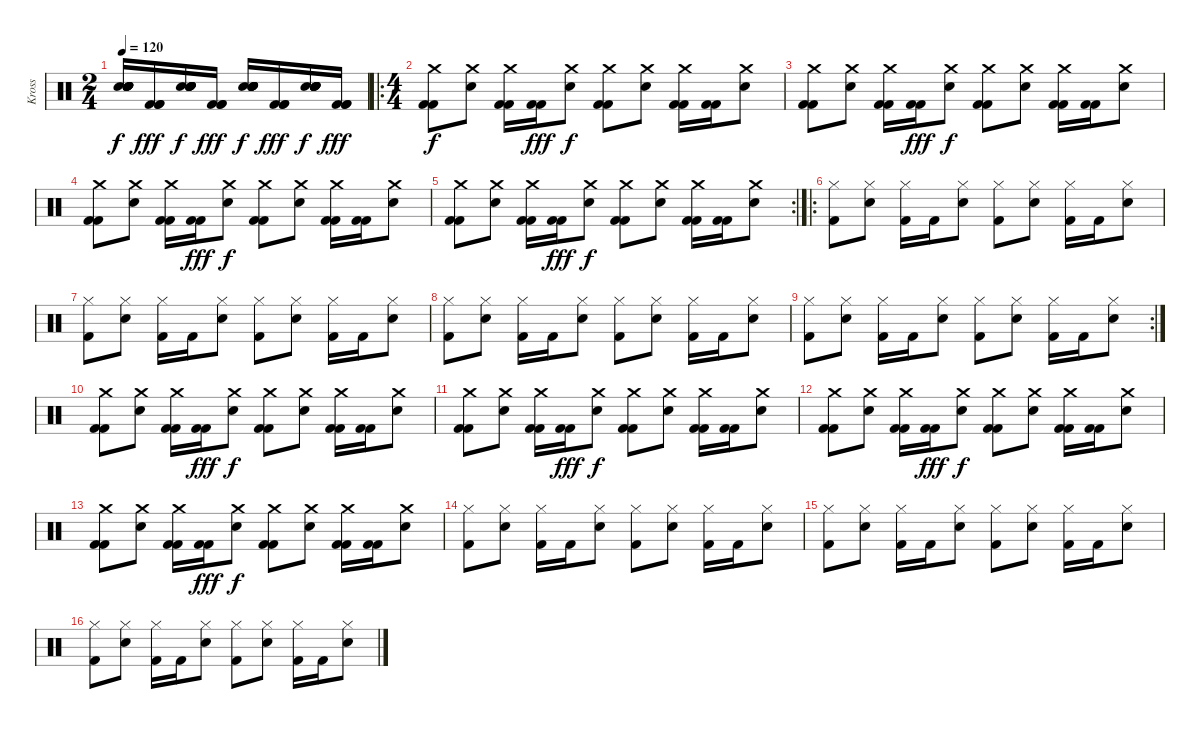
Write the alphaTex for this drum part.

\track ("Kross" "Kross") {instrument percussion}
\staff {score}
\articulation defaults
\ts (2 4)
\tempo 120
\clef neutral
\ks c
("Snare (hit) 2" "Snare (hit) 2" "Snare (hit) 2" "Snare (hit) 2" "Snare (hit) 2" "Snare (hit) 2").16{dy f} ("Kick (hit) 2" "Kick (hit) 2" "Kick (hit) 2").16{dy fff} ("Snare (hit) 2" "Snare (hit) 2" "Snare (hit) 2" "Snare (hit) 2" "Snare (hit) 2" "Snare (hit) 2").16{dy f} ("Kick (hit) 2" "Kick (hit) 2" "Kick (hit) 2").16{dy fff} ("Snare (hit) 2" "Snare (hit) 2" "Snare (hit) 2" "Snare (hit) 2" "Snare (hit) 2" "Snare (hit) 2").16{dy f} ("Kick (hit) 2" "Kick (hit) 2" "Kick (hit) 2").16{dy fff} ("Snare (hit) 2" "Snare (hit) 2" "Snare (hit) 2" "Snare (hit) 2" "Snare (hit) 2" "Snare (hit) 2").16{dy f} ("Kick (hit) 2" "Kick (hit) 2" "Kick (hit) 2").16{dy fff} |
\ro
\ts (4 4)
("Kick (hit) 2" "Kick (hit) 2" "Crash medium (hit)").8{dy f} ("Crash medium (hit)" "Snare (hit) 2").8 ("Kick (hit) 2" "Kick (hit) 2" "Crash medium (hit)").16 ("Kick (hit) 2" "Kick (hit) 2").16{dy fff} ("Crash medium (hit)" "Snare (hit) 2").8{dy f} ("Kick (hit) 2" "Kick (hit) 2" "Crash medium (hit)").8 ("Crash medium (hit)" "Snare (hit) 2").8 ("Kick (hit) 2" "Kick (hit) 2" "Crash medium (hit)").16 ("Kick (hit) 2" "Kick (hit) 2").16 ("Crash medium (hit)" "Snare (hit) 2").8 |
("Kick (hit) 2" "Kick (hit) 2" "Crash medium (hit)").8 ("Crash medium (hit)" "Snare (hit) 2").8 ("Kick (hit) 2" "Kick (hit) 2" "Crash medium (hit)").16 ("Kick (hit) 2" "Kick (hit) 2").16{dy fff} ("Crash medium (hit)" "Snare (hit) 2").8{dy f} ("Kick (hit) 2" "Kick (hit) 2" "Crash medium (hit)").8 ("Crash medium (hit)" "Snare (hit) 2").8 ("Kick (hit) 2" "Kick (hit) 2" "Crash medium (hit)").16 ("Kick (hit) 2" "Kick (hit) 2").16 ("Crash medium (hit)" "Snare (hit) 2").8 |
("Kick (hit) 2" "Kick (hit) 2" "Crash medium (hit)").8 ("Crash medium (hit)" "Snare (hit) 2").8 ("Kick (hit) 2" "Kick (hit) 2" "Crash medium (hit)").16 ("Kick (hit) 2" "Kick (hit) 2").16{dy fff} ("Crash medium (hit)" "Snare (hit) 2").8{dy f} ("Kick (hit) 2" "Kick (hit) 2" "Crash medium (hit)").8 ("Crash medium (hit)" "Snare (hit) 2").8 ("Kick (hit) 2" "Kick (hit) 2" "Crash medium (hit)").16 ("Kick (hit) 2" "Kick (hit) 2").16 ("Crash medium (hit)" "Snare (hit) 2").8 |
\rc 2
("Kick (hit) 2" "Kick (hit) 2" "Crash medium (hit)").8 ("Crash medium (hit)" "Snare (hit) 2").8 ("Kick (hit) 2" "Kick (hit) 2" "Crash medium (hit)").16 ("Kick (hit) 2" "Kick (hit) 2").16{dy fff} ("Crash medium (hit)" "Snare (hit) 2").8{dy f} ("Kick (hit) 2" "Kick (hit) 2" "Crash medium (hit)").8 ("Crash medium (hit)" "Snare (hit) 2").8 ("Kick (hit) 2" "Kick (hit) 2" "Crash medium (hit)").16 ("Kick (hit) 2" "Kick (hit) 2").16 ("Crash medium (hit)" "Snare (hit) 2").8 |
\ro
("Kick (hit) 2" "Hi-Hat (closed)").8 ("Hi-Hat (closed)" "Snare (hit) 2").8 ("Kick (hit) 2" "Hi-Hat (closed)").16 "Kick (hit) 2".16 ("Hi-Hat (closed)" "Snare (hit) 2").8 ("Kick (hit) 2" "Hi-Hat (closed)").8 ("Hi-Hat (closed)" "Snare (hit) 2").8 ("Kick (hit) 2" "Hi-Hat (closed)").16 "Kick (hit) 2".16 ("Hi-Hat (closed)" "Snare (hit) 2").8 |
("Kick (hit) 2" "Hi-Hat (closed)").8 ("Hi-Hat (closed)" "Snare (hit) 2").8 ("Kick (hit) 2" "Hi-Hat (closed)").16 "Kick (hit) 2".16 ("Hi-Hat (closed)" "Snare (hit) 2").8 ("Kick (hit) 2" "Hi-Hat (closed)").8 ("Hi-Hat (closed)" "Snare (hit) 2").8 ("Kick (hit) 2" "Hi-Hat (closed)").16 "Kick (hit) 2".16 ("Hi-Hat (closed)" "Snare (hit) 2").8 |
("Kick (hit) 2" "Hi-Hat (closed)").8 ("Hi-Hat (closed)" "Snare (hit) 2").8 ("Kick (hit) 2" "Hi-Hat (closed)").16 "Kick (hit) 2".16 ("Hi-Hat (closed)" "Snare (hit) 2").8 ("Kick (hit) 2" "Hi-Hat (closed)").8 ("Hi-Hat (closed)" "Snare (hit) 2").8 ("Kick (hit) 2" "Hi-Hat (closed)").16 "Kick (hit) 2".16 ("Hi-Hat (closed)" "Snare (hit) 2").8 |
\rc 2
("Kick (hit) 2" "Hi-Hat (closed)").8 ("Hi-Hat (closed)" "Snare (hit) 2").8 ("Kick (hit) 2" "Hi-Hat (closed)").16 "Kick (hit) 2".16 ("Hi-Hat (closed)" "Snare (hit) 2").8 ("Kick (hit) 2" "Hi-Hat (closed)").8 ("Hi-Hat (closed)" "Snare (hit) 2").8 ("Kick (hit) 2" "Hi-Hat (closed)").16 "Kick (hit) 2".16 ("Hi-Hat (closed)" "Snare (hit) 2").8 |
("Kick (hit) 2" "Kick (hit) 2" "Crash medium (hit)").8 ("Crash medium (hit)" "Snare (hit) 2").8 ("Kick (hit) 2" "Kick (hit) 2" "Crash medium (hit)").16 ("Kick (hit) 2" "Kick (hit) 2").16{dy fff} ("Crash medium (hit)" "Snare (hit) 2").8{dy f} ("Kick (hit) 2" "Kick (hit) 2" "Crash medium (hit)").8 ("Crash medium (hit)" "Snare (hit) 2").8 ("Kick (hit) 2" "Kick (hit) 2" "Crash medium (hit)").16 ("Kick (hit) 2" "Kick (hit) 2").16 ("Crash medium (hit)" "Snare (hit) 2").8 |
("Kick (hit) 2" "Kick (hit) 2" "Crash medium (hit)").8 ("Crash medium (hit)" "Snare (hit) 2").8 ("Kick (hit) 2" "Kick (hit) 2" "Crash medium (hit)").16 ("Kick (hit) 2" "Kick (hit) 2").16{dy fff} ("Crash medium (hit)" "Snare (hit) 2").8{dy f} ("Kick (hit) 2" "Kick (hit) 2" "Crash medium (hit)").8 ("Crash medium (hit)" "Snare (hit) 2").8 ("Kick (hit) 2" "Kick (hit) 2" "Crash medium (hit)").16 ("Kick (hit) 2" "Kick (hit) 2").16 ("Crash medium (hit)" "Snare (hit) 2").8 |
("Kick (hit) 2" "Kick (hit) 2" "Crash medium (hit)").8 ("Crash medium (hit)" "Snare (hit) 2").8 ("Kick (hit) 2" "Kick (hit) 2" "Crash medium (hit)").16 ("Kick (hit) 2" "Kick (hit) 2").16{dy fff} ("Crash medium (hit)" "Snare (hit) 2").8{dy f} ("Kick (hit) 2" "Kick (hit) 2" "Crash medium (hit)").8 ("Crash medium (hit)" "Snare (hit) 2").8 ("Kick (hit) 2" "Kick (hit) 2" "Crash medium (hit)").16 ("Kick (hit) 2" "Kick (hit) 2").16 ("Crash medium (hit)" "Snare (hit) 2").8 |
("Kick (hit) 2" "Kick (hit) 2" "Crash medium (hit)").8 ("Crash medium (hit)" "Snare (hit) 2").8 ("Kick (hit) 2" "Kick (hit) 2" "Crash medium (hit)").16 ("Kick (hit) 2" "Kick (hit) 2").16{dy fff} ("Crash medium (hit)" "Snare (hit) 2").8{dy f} ("Kick (hit) 2" "Kick (hit) 2" "Crash medium (hit)").8 ("Crash medium (hit)" "Snare (hit) 2").8 ("Kick (hit) 2" "Kick (hit) 2" "Crash medium (hit)").16 ("Kick (hit) 2" "Kick (hit) 2").16 ("Crash medium (hit)" "Snare (hit) 2").8 |
("Kick (hit) 2" "Hi-Hat (closed)").8 ("Hi-Hat (closed)" "Snare (hit) 2").8 ("Kick (hit) 2" "Hi-Hat (closed)").16 "Kick (hit) 2".16 ("Hi-Hat (closed)" "Snare (hit) 2").8 ("Kick (hit) 2" "Hi-Hat (closed)").8 ("Hi-Hat (closed)" "Snare (hit) 2").8 ("Kick (hit) 2" "Hi-Hat (closed)").16 "Kick (hit) 2".16 ("Hi-Hat (closed)" "Snare (hit) 2").8 |
("Kick (hit) 2" "Hi-Hat (closed)").8 ("Hi-Hat (closed)" "Snare (hit) 2").8 ("Kick (hit) 2" "Hi-Hat (closed)").16 "Kick (hit) 2".16 ("Hi-Hat (closed)" "Snare (hit) 2").8 ("Kick (hit) 2" "Hi-Hat (closed)").8 ("Hi-Hat (closed)" "Snare (hit) 2").8 ("Kick (hit) 2" "Hi-Hat (closed)").16 "Kick (hit) 2".16 ("Hi-Hat (closed)" "Snare (hit) 2").8 |
("Kick (hit) 2" "Hi-Hat (closed)").8 ("Hi-Hat (closed)" "Snare (hit) 2").8 ("Kick (hit) 2" "Hi-Hat (closed)").16 "Kick (hit) 2".16 ("Hi-Hat (closed)" "Snare (hit) 2").8 ("Kick (hit) 2" "Hi-Hat (closed)").8 ("Hi-Hat (closed)" "Snare (hit) 2").8 ("Kick (hit) 2" "Hi-Hat (closed)").16 "Kick (hit) 2".16 ("Hi-Hat (closed)" "Snare (hit) 2").8
